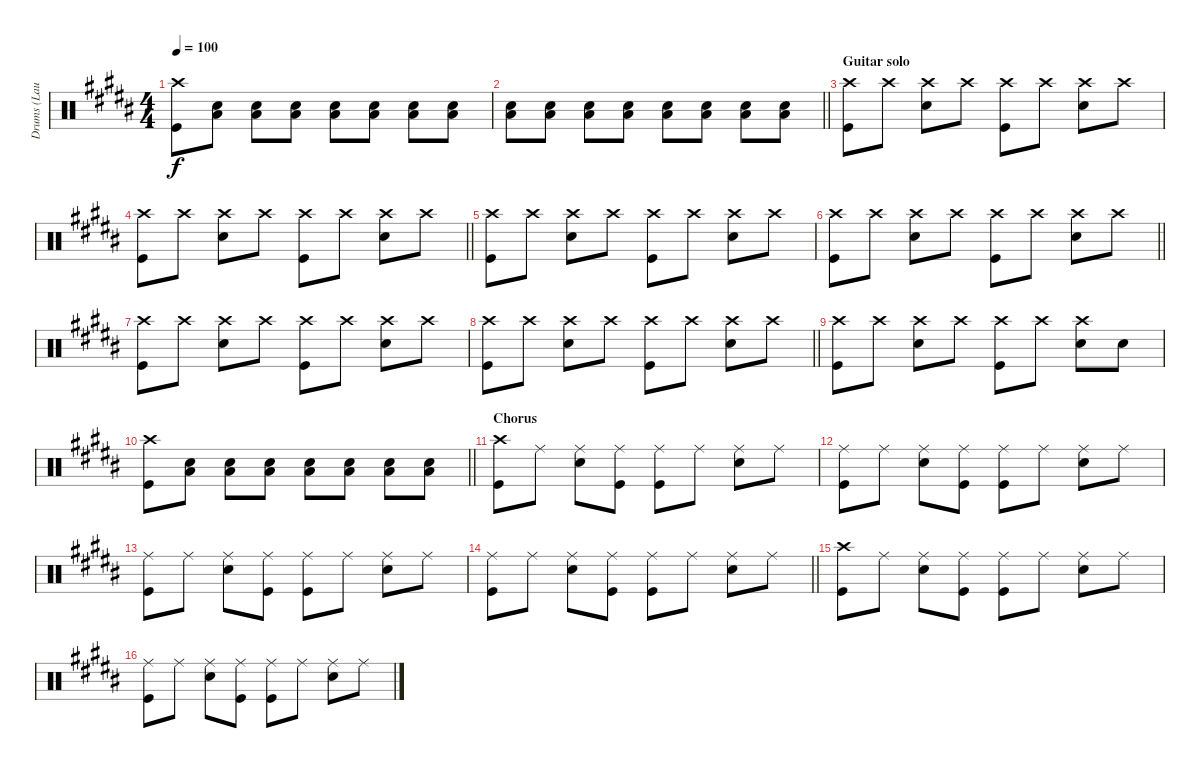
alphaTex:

\track ("Drums (Laust Sonne)" "Drums (Lau") {instrument percussion}
\staff {score}
\articulation defaults
\ts (4 4)
\tempo 100
\clef neutral
\ks b
("Crash high (hit)" "Kick (hit)").8{dy f} ("Low Floor Tom (hit)" "Snare (hit) 2").8 ("Low Floor Tom (hit)" "Snare (hit) 2").8 ("Low Floor Tom (hit)" "Snare (hit) 2").8 ("Low Floor Tom (hit)" "Snare (hit) 2").8 ("Low Floor Tom (hit)" "Snare (hit) 2").8 ("Low Floor Tom (hit)" "Snare (hit) 2").8 ("Low Floor Tom (hit)" "Snare (hit) 2").8 |
\barLineRight lightlight
("Low Floor Tom (hit)" "Snare (hit) 2").8 ("Low Floor Tom (hit)" "Snare (hit) 2").8 ("Low Floor Tom (hit)" "Snare (hit) 2").8 ("Low Floor Tom (hit)" "Snare (hit) 2").8 ("Low Floor Tom (hit)" "Snare (hit) 2").8 ("Low Floor Tom (hit)" "Snare (hit) 2").8 ("Low Floor Tom (hit)" "Snare (hit) 2").8 ("Low Floor Tom (hit)" "Snare (hit) 2").8 |
\section ("" "Guitar solo")
("Crash high (hit)" "Kick (hit)").8 "Crash high (hit)".8 ("Crash high (hit)" "Snare (hit) 2").8 "Crash high (hit)".8 ("Crash high (hit)" "Kick (hit)").8 "Crash high (hit)".8 ("Crash high (hit)" "Snare (hit) 2").8 "Crash high (hit)".8 |
\barLineRight lightlight
("Crash high (hit)" "Kick (hit)").8 "Crash high (hit)".8 ("Crash high (hit)" "Snare (hit) 2").8 "Crash high (hit)".8 ("Crash high (hit)" "Kick (hit)").8 "Crash high (hit)".8 ("Crash high (hit)" "Snare (hit) 2").8 "Crash high (hit)".8 |
("Crash high (hit)" "Kick (hit)").8 "Crash high (hit)".8 ("Crash high (hit)" "Snare (hit) 2").8 "Crash high (hit)".8 ("Crash high (hit)" "Kick (hit)").8 "Crash high (hit)".8 ("Crash high (hit)" "Snare (hit) 2").8 "Crash high (hit)".8 |
\barLineRight lightlight
("Crash high (hit)" "Kick (hit)").8 "Crash high (hit)".8 ("Crash high (hit)" "Snare (hit) 2").8 "Crash high (hit)".8 ("Crash high (hit)" "Kick (hit)").8 "Crash high (hit)".8 ("Crash high (hit)" "Snare (hit) 2").8 "Crash high (hit)".8 |
("Crash high (hit)" "Kick (hit)").8 "Crash high (hit)".8 ("Crash high (hit)" "Snare (hit) 2").8 "Crash high (hit)".8 ("Crash high (hit)" "Kick (hit)").8 "Crash high (hit)".8 ("Crash high (hit)" "Snare (hit) 2").8 "Crash high (hit)".8 |
\barLineRight lightlight
("Crash high (hit)" "Kick (hit)").8 "Crash high (hit)".8 ("Crash high (hit)" "Snare (hit) 2").8 "Crash high (hit)".8 ("Crash high (hit)" "Kick (hit)").8 "Crash high (hit)".8 ("Crash high (hit)" "Snare (hit) 2").8 "Crash high (hit)".8 |
("Crash high (hit)" "Kick (hit)").8 "Crash high (hit)".8 ("Crash high (hit)" "Snare (hit) 2").8 "Crash high (hit)".8 ("Crash high (hit)" "Kick (hit)").8 "Crash high (hit)".8 ("Crash high (hit)" "Snare (hit) 2").8 "Snare (hit) 2".8 |
\barLineRight lightlight
("Crash high (hit)" "Kick (hit)").8 ("Low Floor Tom (hit)" "Snare (hit) 2").8 ("Low Floor Tom (hit)" "Snare (hit) 2").8 ("Low Floor Tom (hit)" "Snare (hit) 2").8 ("Low Floor Tom (hit)" "Snare (hit) 2").8 ("Low Floor Tom (hit)" "Snare (hit) 2").8 ("Low Floor Tom (hit)" "Snare (hit) 2").8 ("Low Floor Tom (hit)" "Snare (hit) 2").8 |
\section ("" "Chorus")
("Crash high (hit)" "Kick (hit)").8 "Ride (middle)".8 ("Ride (middle)" "Snare (hit) 2").8 ("Ride (middle)" "Kick (hit)").8 ("Ride (middle)" "Kick (hit)").8 "Ride (middle)".8 ("Ride (middle)" "Snare (hit) 2").8 "Ride (middle)".8 |
("Ride (middle)" "Kick (hit)").8 "Ride (middle)".8 ("Ride (middle)" "Snare (hit) 2").8 ("Ride (middle)" "Kick (hit)").8 ("Ride (middle)" "Kick (hit)").8 "Ride (middle)".8 ("Ride (middle)" "Snare (hit) 2").8 "Ride (middle)".8 |
("Ride (middle)" "Kick (hit)").8 "Ride (middle)".8 ("Ride (middle)" "Snare (hit) 2").8 ("Ride (middle)" "Kick (hit)").8 ("Ride (middle)" "Kick (hit)").8 "Ride (middle)".8 ("Ride (middle)" "Snare (hit) 2").8 "Ride (middle)".8 |
\barLineRight lightlight
("Ride (middle)" "Kick (hit)").8 "Ride (middle)".8 ("Ride (middle)" "Snare (hit) 2").8 ("Ride (middle)" "Kick (hit)").8 ("Ride (middle)" "Kick (hit)").8 "Ride (middle)".8 ("Ride (middle)" "Snare (hit) 2").8 "Ride (middle)".8 |
("Crash high (hit)" "Kick (hit)").8 "Ride (middle)".8 ("Ride (middle)" "Snare (hit) 2").8 ("Ride (middle)" "Kick (hit)").8 ("Ride (middle)" "Kick (hit)").8 "Ride (middle)".8 ("Ride (middle)" "Snare (hit) 2").8 "Ride (middle)".8 |
("Ride (middle)" "Kick (hit)").8 "Ride (middle)".8 ("Ride (middle)" "Snare (hit) 2").8 ("Ride (middle)" "Kick (hit)").8 ("Ride (middle)" "Kick (hit)").8 "Ride (middle)".8 ("Ride (middle)" "Snare (hit) 2").8 "Ride (middle)".8
